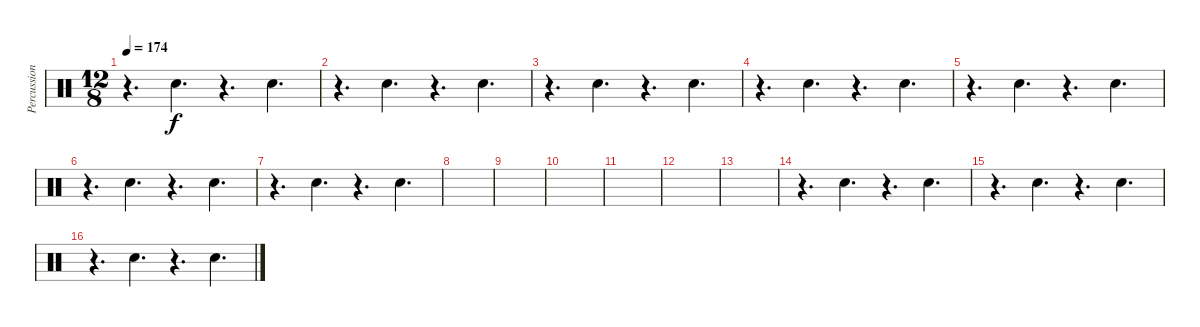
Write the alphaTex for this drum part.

\track ("Percussion" "Percussion") {instrument percussion}
\staff {score}
\articulation defaults
\ts (12 8)
\tempo 174
\clef neutral
\ks c
r.4{d dy f} "Hand Clap (hit)".4{d} r.4{d} "Hand Clap (hit)".4{d} |
r.4{d} "Hand Clap (hit)".4{d} r.4{d} "Hand Clap (hit)".4{d} |
r.4{d} "Hand Clap (hit)".4{d} r.4{d} "Hand Clap (hit)".4{d} |
r.4{d} "Hand Clap (hit)".4{d} r.4{d} "Hand Clap (hit)".4{d} |
r.4{d} "Hand Clap (hit)".4{d} r.4{d} "Hand Clap (hit)".4{d} |
r.4{d} "Hand Clap (hit)".4{d} r.4{d} "Hand Clap (hit)".4{d} |
r.4{d} "Hand Clap (hit)".4{d} r.4{d} "Hand Clap (hit)".4{d} |
|
|
|
|
|
|
r.4{d} "Hand Clap (hit)".4{d} r.4{d} "Hand Clap (hit)".4{d} |
r.4{d} "Hand Clap (hit)".4{d} r.4{d} "Hand Clap (hit)".4{d} |
r.4{d} "Hand Clap (hit)".4{d} r.4{d} "Hand Clap (hit)".4{d}
